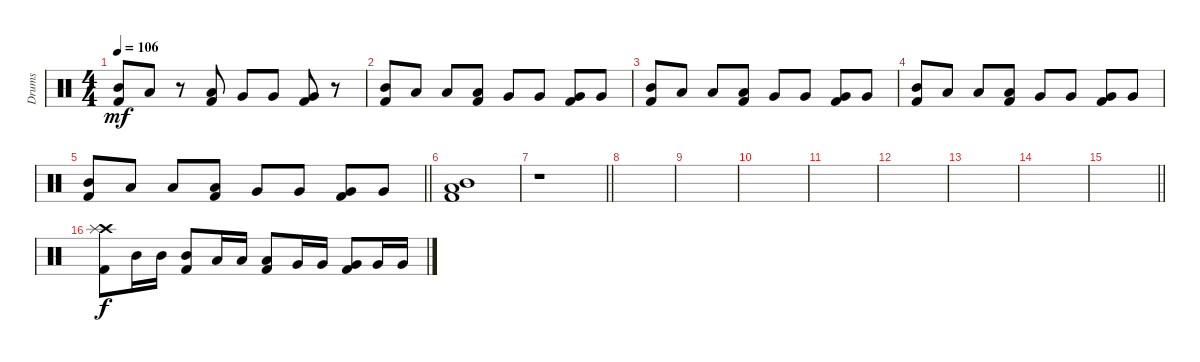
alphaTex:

\track ("Drums" "Drums") {instrument percussion}
\staff {score}
\articulation defaults
\ts (4 4)
\tempo 106
\clef neutral
\ks c
("Mid Tom (hit)" "Kick (hit) 2").8{dy mf} "Low Tom (hit)".8 r.8 ("Low Tom (hit)" "Kick (hit) 2").8 "Very Low Tom (hit)".8 "Very Low Tom (hit)".8 ("Very Low Tom (hit)" "Kick (hit) 2").8 r.8 |
("Mid Tom (hit)" "Kick (hit) 2").8 "Low Tom (hit)".8 "Low Tom (hit)".8 ("Low Tom (hit)" "Kick (hit) 2").8 "Very Low Tom (hit)".8 "Very Low Tom (hit)".8 ("Very Low Tom (hit)" "Kick (hit) 2").8 "Very Low Tom (hit)".8 |
("Mid Tom (hit)" "Kick (hit) 2").8 "Low Tom (hit)".8 "Low Tom (hit)".8 ("Low Tom (hit)" "Kick (hit) 2").8 "Very Low Tom (hit)".8 "Very Low Tom (hit)".8 ("Very Low Tom (hit)" "Kick (hit) 2").8 "Very Low Tom (hit)".8 |
("Mid Tom (hit)" "Kick (hit) 2").8 "Low Tom (hit)".8 "Low Tom (hit)".8 ("Low Tom (hit)" "Kick (hit) 2").8 "Very Low Tom (hit)".8 "Very Low Tom (hit)".8 ("Very Low Tom (hit)" "Kick (hit) 2").8 "Very Low Tom (hit)".8 |
\barLineRight lightlight
("Mid Tom (hit)" "Kick (hit) 2").8 "Low Tom (hit)".8 "Low Tom (hit)".8 ("Low Tom (hit)" "Kick (hit) 2").8 "Very Low Tom (hit)".8 "Very Low Tom (hit)".8 ("Very Low Tom (hit)" "Kick (hit) 2").8 "Very Low Tom (hit)".8 |
\section ("" "")
("Mid Tom (hit)" "Low Tom (hit)" "Kick (hit) 2").1 |
\barLineRight lightlight
r.1 |
\section ("" "")
|
|
|
|
|
|
|
\barLineRight lightlight
|
\section ("" "")
("Crash high (hit)" "Splash (hit)" "Kick (hit) 2").8{dy f} "Mid Tom (hit)".16 "Mid Tom (hit)".16 ("Mid Tom (hit)" "Kick (hit) 2").8 "Low Tom (hit)".16 "Low Tom (hit)".16 ("Low Tom (hit)" "Kick (hit) 2").8 "Very Low Tom (hit)".16 "Very Low Tom (hit)".16 ("Very Low Tom (hit)" "Kick (hit) 2").8 "Very Low Tom (hit)".16 "Very Low Tom (hit)".16
